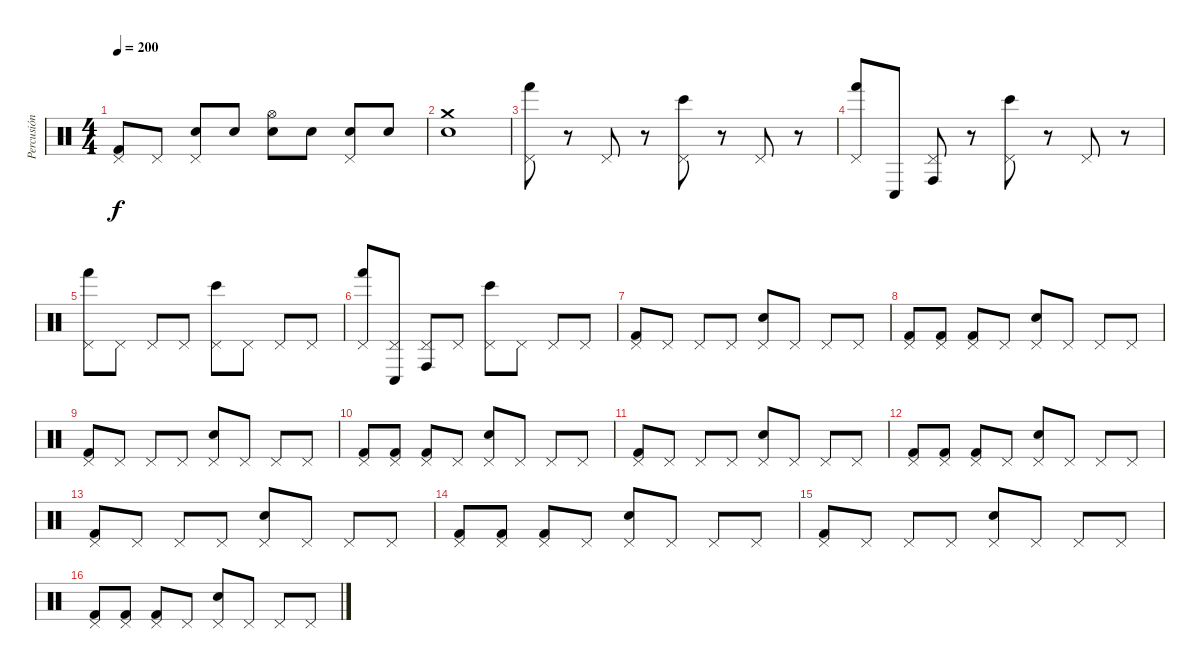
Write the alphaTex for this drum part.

\track ("Percusión" "Percusión") {instrument percussion}
\staff {score}
\articulation defaults
\ts (4 4)
\tempo 200
\clef neutral
\ks c
("Kick (hit) 2" "Pedal Hi-Hat (hit)").8{dy f} "Pedal Hi-Hat (hit)".8 ("Electric Snare (hit)" "Pedal Hi-Hat (hit)").8 "Electric Snare (hit)".8 ("Electric Snare (hit)" "Hi-Hat (open)").8 "Electric Snare (hit)".8 ("Electric Snare (hit)" "Pedal Hi-Hat (hit)").8 "Electric Snare (hit)".8 |
("Electric Snare (hit)" "Crash medium (hit)").1 |
("Hand (hit)" "Pedal Hi-Hat (hit)").8 r.8 "Pedal Hi-Hat (hit)".8 r.8 ("Bongo High (hit)" "Pedal Hi-Hat (hit)").8 r.8 "Pedal Hi-Hat (hit)".8 r.8 |
("Hand (hit)" "Pedal Hi-Hat (hit)").8 "Conga low (hit)".8 ("Conga high (hit)" "Pedal Hi-Hat (hit)").8 r.8 ("Bongo High (hit)" "Pedal Hi-Hat (hit)").8 r.8 "Pedal Hi-Hat (hit)".8 r.8 |
("Hand (hit)" "Pedal Hi-Hat (hit)").8 "Pedal Hi-Hat (hit)".8 "Pedal Hi-Hat (hit)".8 "Pedal Hi-Hat (hit)".8 ("Bongo High (hit)" "Pedal Hi-Hat (hit)").8 "Pedal Hi-Hat (hit)".8 "Pedal Hi-Hat (hit)".8 "Pedal Hi-Hat (hit)".8 |
("Hand (hit)" "Pedal Hi-Hat (hit)").8 ("Conga low (hit)" "Pedal Hi-Hat (hit)").8 ("Conga high (hit)" "Pedal Hi-Hat (hit)").8 "Pedal Hi-Hat (hit)".8 ("Bongo High (hit)" "Pedal Hi-Hat (hit)").8 "Pedal Hi-Hat (hit)".8 "Pedal Hi-Hat (hit)".8 "Pedal Hi-Hat (hit)".8 |
("Kick (hit) 2" "Pedal Hi-Hat (hit)").8 "Pedal Hi-Hat (hit)".8 "Pedal Hi-Hat (hit)".8 "Pedal Hi-Hat (hit)".8 ("Electric Snare (hit)" "Pedal Hi-Hat (hit)").8 "Pedal Hi-Hat (hit)".8 "Pedal Hi-Hat (hit)".8 "Pedal Hi-Hat (hit)".8 |
("Kick (hit) 2" "Pedal Hi-Hat (hit)").8 ("Kick (hit) 2" "Pedal Hi-Hat (hit)").8 ("Kick (hit) 2" "Pedal Hi-Hat (hit)").8 "Pedal Hi-Hat (hit)".8 ("Electric Snare (hit)" "Pedal Hi-Hat (hit)").8 "Pedal Hi-Hat (hit)".8 "Pedal Hi-Hat (hit)".8 "Pedal Hi-Hat (hit)".8 |
("Kick (hit) 2" "Pedal Hi-Hat (hit)").8 "Pedal Hi-Hat (hit)".8 "Pedal Hi-Hat (hit)".8 "Pedal Hi-Hat (hit)".8 ("Electric Snare (hit)" "Pedal Hi-Hat (hit)").8 "Pedal Hi-Hat (hit)".8 "Pedal Hi-Hat (hit)".8 "Pedal Hi-Hat (hit)".8 |
("Kick (hit) 2" "Pedal Hi-Hat (hit)").8 ("Kick (hit) 2" "Pedal Hi-Hat (hit)").8 ("Kick (hit) 2" "Pedal Hi-Hat (hit)").8 "Pedal Hi-Hat (hit)".8 ("Electric Snare (hit)" "Pedal Hi-Hat (hit)").8 "Pedal Hi-Hat (hit)".8 "Pedal Hi-Hat (hit)".8 "Pedal Hi-Hat (hit)".8 |
("Kick (hit) 2" "Pedal Hi-Hat (hit)").8 "Pedal Hi-Hat (hit)".8 "Pedal Hi-Hat (hit)".8 "Pedal Hi-Hat (hit)".8 ("Electric Snare (hit)" "Pedal Hi-Hat (hit)").8 "Pedal Hi-Hat (hit)".8 "Pedal Hi-Hat (hit)".8 "Pedal Hi-Hat (hit)".8 |
("Kick (hit) 2" "Pedal Hi-Hat (hit)").8 ("Kick (hit) 2" "Pedal Hi-Hat (hit)").8 ("Kick (hit) 2" "Pedal Hi-Hat (hit)").8 "Pedal Hi-Hat (hit)".8 ("Electric Snare (hit)" "Pedal Hi-Hat (hit)").8 "Pedal Hi-Hat (hit)".8 "Pedal Hi-Hat (hit)".8 "Pedal Hi-Hat (hit)".8 |
("Kick (hit) 2" "Pedal Hi-Hat (hit)").8 "Pedal Hi-Hat (hit)".8 "Pedal Hi-Hat (hit)".8 "Pedal Hi-Hat (hit)".8 ("Electric Snare (hit)" "Pedal Hi-Hat (hit)").8 "Pedal Hi-Hat (hit)".8 "Pedal Hi-Hat (hit)".8 "Pedal Hi-Hat (hit)".8 |
("Kick (hit) 2" "Pedal Hi-Hat (hit)").8 ("Kick (hit) 2" "Pedal Hi-Hat (hit)").8 ("Kick (hit) 2" "Pedal Hi-Hat (hit)").8 "Pedal Hi-Hat (hit)".8 ("Electric Snare (hit)" "Pedal Hi-Hat (hit)").8 "Pedal Hi-Hat (hit)".8 "Pedal Hi-Hat (hit)".8 "Pedal Hi-Hat (hit)".8 |
("Kick (hit) 2" "Pedal Hi-Hat (hit)").8 "Pedal Hi-Hat (hit)".8 "Pedal Hi-Hat (hit)".8 "Pedal Hi-Hat (hit)".8 ("Electric Snare (hit)" "Pedal Hi-Hat (hit)").8 "Pedal Hi-Hat (hit)".8 "Pedal Hi-Hat (hit)".8 "Pedal Hi-Hat (hit)".8 |
("Kick (hit) 2" "Pedal Hi-Hat (hit)").8 ("Kick (hit) 2" "Pedal Hi-Hat (hit)").8 ("Kick (hit) 2" "Pedal Hi-Hat (hit)").8 "Pedal Hi-Hat (hit)".8 ("Electric Snare (hit)" "Pedal Hi-Hat (hit)").8 "Pedal Hi-Hat (hit)".8 "Pedal Hi-Hat (hit)".8 "Pedal Hi-Hat (hit)".8
